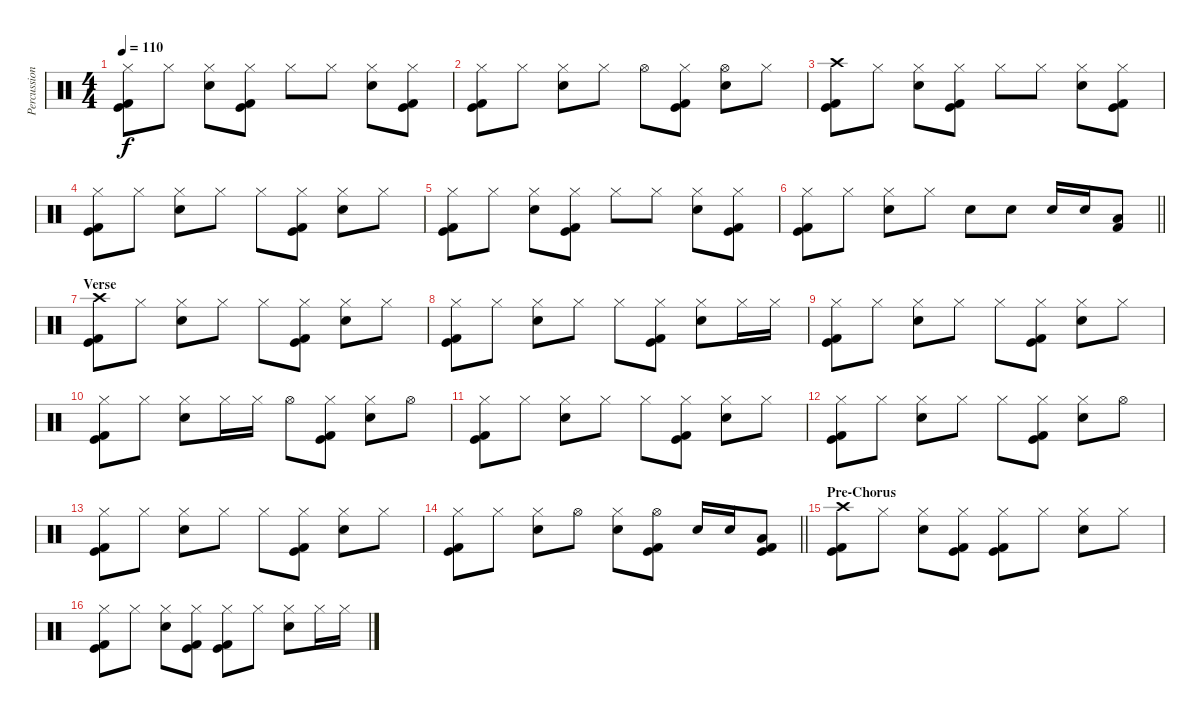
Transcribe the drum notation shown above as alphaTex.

\track ("Percussion" "Percussion") {instrument percussion}
\staff {score}
\articulation defaults
\ts (4 4)
\tempo 110
\clef neutral
\ks c
("Hi-Hat (closed)" "Kick (hit)" "Kick (hit) 2").8{dy f} "Hi-Hat (closed)".8 ("Hi-Hat (closed)" "Snare (hit) 2").8 ("Hi-Hat (closed)" "Kick (hit)" "Kick (hit) 2").8 "Hi-Hat (closed)".8 "Hi-Hat (closed)".8 ("Hi-Hat (closed)" "Snare (hit) 2").8 ("Hi-Hat (closed)" "Kick (hit)" "Kick (hit) 2").8 |
("Hi-Hat (closed)" "Kick (hit)" "Kick (hit) 2").8 "Hi-Hat (closed)".8 ("Hi-Hat (closed)" "Snare (hit) 2").8 "Hi-Hat (closed)".8 "Hi-Hat (open)".8 ("Hi-Hat (closed)" "Kick (hit)" "Kick (hit) 2").8 ("Hi-Hat (open)" "Snare (hit) 2").8 "Hi-Hat (closed)".8 |
("Crash high (hit)" "Kick (hit)" "Kick (hit) 2").8 "Hi-Hat (closed)".8 ("Hi-Hat (closed)" "Snare (hit) 2").8 ("Hi-Hat (closed)" "Kick (hit)" "Kick (hit) 2").8 "Hi-Hat (closed)".8 "Hi-Hat (closed)".8 ("Hi-Hat (closed)" "Snare (hit) 2").8 ("Hi-Hat (closed)" "Kick (hit)" "Kick (hit) 2").8 |
("Hi-Hat (closed)" "Kick (hit)" "Kick (hit) 2").8 "Hi-Hat (closed)".8 ("Hi-Hat (closed)" "Snare (hit) 2").8 "Hi-Hat (closed)".8 "Hi-Hat (closed)".8 ("Hi-Hat (closed)" "Kick (hit)" "Kick (hit) 2").8 ("Hi-Hat (closed)" "Snare (hit) 2").8 "Hi-Hat (closed)".8 |
("Hi-Hat (closed)" "Kick (hit)" "Kick (hit) 2").8 "Hi-Hat (closed)".8 ("Hi-Hat (closed)" "Snare (hit) 2").8 ("Hi-Hat (closed)" "Kick (hit)" "Kick (hit) 2").8 "Hi-Hat (closed)".8 "Hi-Hat (closed)".8 ("Hi-Hat (closed)" "Snare (hit) 2").8 ("Hi-Hat (closed)" "Kick (hit)" "Kick (hit) 2").8 |
\barLineRight lightlight
("Hi-Hat (closed)" "Kick (hit)" "Kick (hit) 2").8 "Hi-Hat (closed)".8 ("Hi-Hat (closed)" "Snare (hit) 2").8 "Hi-Hat (closed)".8 "Snare (hit) 2".8 "Snare (hit) 2".8 "Snare (hit) 2".16 "Snare (hit) 2".16 ("Low Tom (hit)" "Kick (hit) 2").8 |
\section ("" "Verse")
("Crash high (hit)" "Kick (hit)" "Kick (hit) 2").8 "Hi-Hat (closed)".8 ("Hi-Hat (closed)" "Snare (hit) 2").8 "Hi-Hat (closed)".8 "Hi-Hat (closed)".8 ("Hi-Hat (closed)" "Kick (hit)" "Kick (hit) 2").8 ("Hi-Hat (closed)" "Snare (hit) 2").8 "Hi-Hat (closed)".8 |
("Hi-Hat (closed)" "Kick (hit)" "Kick (hit) 2").8 "Hi-Hat (closed)".8 ("Hi-Hat (closed)" "Snare (hit) 2").8 "Hi-Hat (closed)".8 "Hi-Hat (closed)".8 ("Hi-Hat (closed)" "Kick (hit)" "Kick (hit) 2").8 ("Hi-Hat (closed)" "Snare (hit) 2").8 "Hi-Hat (closed)".16 "Hi-Hat (closed)".16 |
("Hi-Hat (closed)" "Kick (hit)" "Kick (hit) 2").8 "Hi-Hat (closed)".8 ("Hi-Hat (closed)" "Snare (hit) 2").8 "Hi-Hat (closed)".8 "Hi-Hat (closed)".8 ("Hi-Hat (closed)" "Kick (hit)" "Kick (hit) 2").8 ("Hi-Hat (closed)" "Snare (hit) 2").8 "Hi-Hat (closed)".8 |
("Hi-Hat (closed)" "Kick (hit)" "Kick (hit) 2").8 "Hi-Hat (closed)".8 ("Hi-Hat (closed)" "Snare (hit) 2").8 "Hi-Hat (closed)".16 "Hi-Hat (closed)".16 "Hi-Hat (open)".8 ("Hi-Hat (closed)" "Kick (hit)" "Kick (hit) 2").8 ("Hi-Hat (closed)" "Snare (hit) 2").8 "Hi-Hat (open)".8 |
("Hi-Hat (closed)" "Kick (hit)" "Kick (hit) 2").8 "Hi-Hat (closed)".8 ("Hi-Hat (closed)" "Snare (hit) 2").8 "Hi-Hat (closed)".8 "Hi-Hat (closed)".8 ("Hi-Hat (closed)" "Kick (hit)" "Kick (hit) 2").8 ("Hi-Hat (closed)" "Snare (hit) 2").8 "Hi-Hat (closed)".8 |
("Hi-Hat (closed)" "Kick (hit)" "Kick (hit) 2").8 "Hi-Hat (closed)".8 ("Hi-Hat (closed)" "Snare (hit) 2").8 "Hi-Hat (closed)".8 "Hi-Hat (closed)".8 ("Hi-Hat (closed)" "Kick (hit)" "Kick (hit) 2").8 ("Hi-Hat (closed)" "Snare (hit) 2").8 "Hi-Hat (open)".8 |
("Hi-Hat (closed)" "Kick (hit)" "Kick (hit) 2").8 "Hi-Hat (closed)".8 ("Hi-Hat (closed)" "Snare (hit) 2").8 "Hi-Hat (closed)".8 "Hi-Hat (closed)".8 ("Hi-Hat (closed)" "Kick (hit)" "Kick (hit) 2").8 ("Hi-Hat (closed)" "Snare (hit) 2").8 "Hi-Hat (closed)".8 |
\barLineRight lightlight
("Hi-Hat (closed)" "Kick (hit)" "Kick (hit) 2").8 "Hi-Hat (closed)".8 ("Hi-Hat (closed)" "Snare (hit) 2").8 "Hi-Hat (open)".8 ("Hi-Hat (closed)" "Snare (hit) 2").8 ("Hi-Hat (open)" "Kick (hit)" "Kick (hit) 2").8 "Snare (hit) 2".16 "Snare (hit) 2".16 ("Low Tom (hit)" "Kick (hit)" "Kick (hit) 2").8 |
\section ("" "Pre-Chorus")
("Crash high (hit)" "Kick (hit)" "Kick (hit) 2").8 "Hi-Hat (closed)".8 ("Hi-Hat (closed)" "Snare (hit) 2").8 ("Hi-Hat (closed)" "Kick (hit)" "Kick (hit) 2").8 ("Hi-Hat (closed)" "Kick (hit)" "Kick (hit) 2").8 "Hi-Hat (closed)".8 ("Hi-Hat (closed)" "Snare (hit) 2").8 "Hi-Hat (closed)".8 |
("Hi-Hat (closed)" "Kick (hit)" "Kick (hit) 2").8 "Hi-Hat (closed)".8 ("Hi-Hat (closed)" "Snare (hit) 2").8 ("Hi-Hat (closed)" "Kick (hit)" "Kick (hit) 2").8 ("Hi-Hat (closed)" "Kick (hit)" "Kick (hit) 2").8 "Hi-Hat (closed)".8 ("Hi-Hat (closed)" "Snare (hit) 2").8 "Hi-Hat (closed)".16 "Hi-Hat (closed)".16
